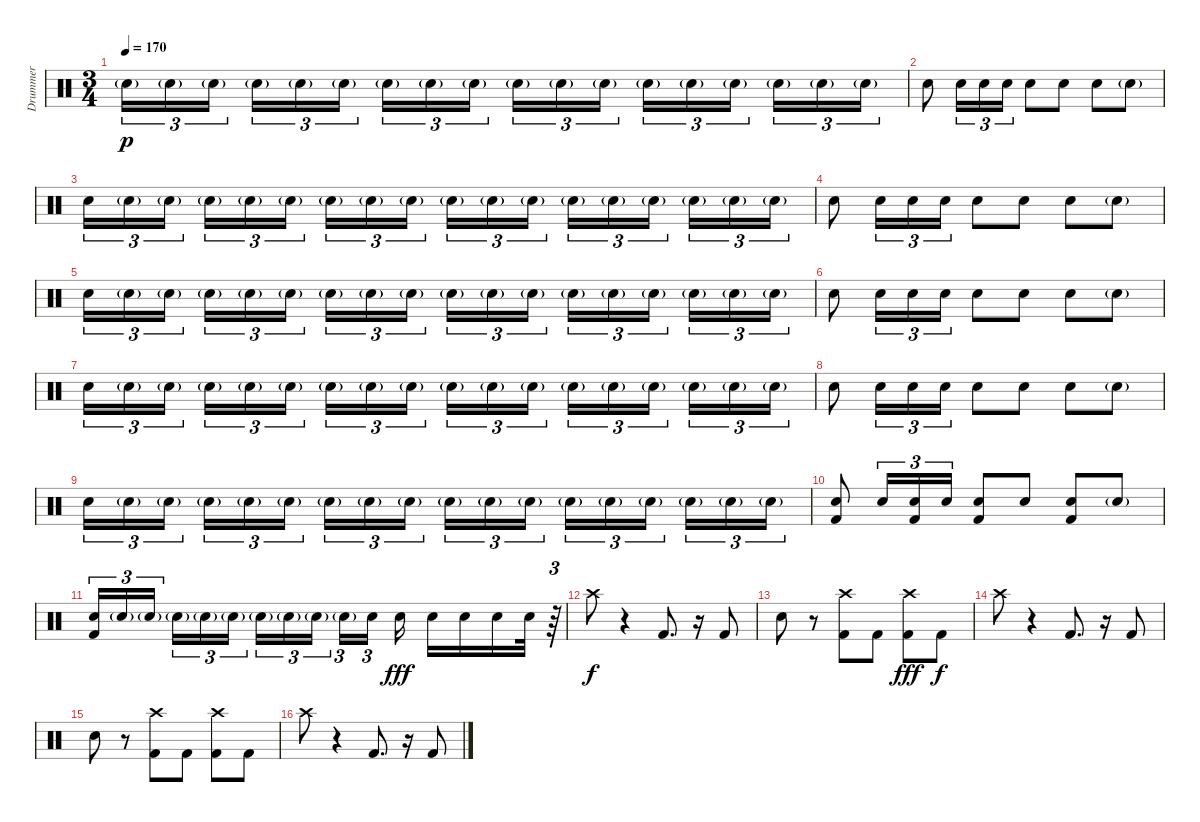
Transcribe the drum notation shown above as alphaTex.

\track ("Drummer" "Drummer") {instrument percussion}
\staff {score}
\articulation defaults
\ts (3 4)
\tempo 170
\clef neutral
\ks c "Electric Snare (hit)"{g}.16{tu (3 2) dy p} "Electric Snare (hit)"{g}.16{tu (3 2)} "Electric Snare (hit)"{g}.16{tu (3 2) beam splitsecondary} "Electric Snare (hit)"{g}.16{tu (3 2)} "Electric Snare (hit)"{g}.16{tu (3 2)} "Electric Snare (hit)"{g}.16{tu (3 2)} "Electric Snare (hit)"{g}.16{tu (3 2)} "Electric Snare (hit)"{g}.16{tu (3 2)} "Electric Snare (hit)"{g}.16{tu (3 2) beam splitsecondary} "Electric Snare (hit)"{g}.16{tu (3 2)} "Electric Snare (hit)"{g}.16{tu (3 2)} "Electric Snare (hit)"{g}.16{tu (3 2)} "Electric Snare (hit)"{g}.16{tu (3 2)} "Electric Snare (hit)"{g}.16{tu (3 2)} "Electric Snare (hit)"{g}.16{tu (3 2) beam splitsecondary} "Electric Snare (hit)"{g}.16{tu (3 2)} "Electric Snare (hit)"{g}.16{tu (3 2)} "Electric Snare (hit)"{g}.16{tu (3 2)}
|
"Electric Snare (hit)".8 "Electric Snare (hit)".16{tu (3 2)} "Electric Snare (hit)".16{tu (3 2)} "Electric Snare (hit)".16{tu (3 2)} "Electric Snare (hit)".8 "Electric Snare (hit)".8 "Electric Snare (hit)".8 "Electric Snare (hit)"{g}.8 |
"Electric Snare (hit)".16{tu (3 2)} "Electric Snare (hit)"{g}.16{tu (3 2)} "Electric Snare (hit)"{g}.16{tu (3 2) beam splitsecondary} "Electric Snare (hit)"{g}.16{tu (3 2)} "Electric Snare (hit)"{g}.16{tu (3 2)} "Electric Snare (hit)"{g}.16{tu (3 2)} "Electric Snare (hit)"{g}.16{tu (3 2)} "Electric Snare (hit)"{g}.16{tu (3 2)} "Electric Snare (hit)"{g}.16{tu (3 2) beam splitsecondary} "Electric Snare (hit)"{g}.16{tu (3 2)} "Electric Snare (hit)"{g}.16{tu (3 2)} "Electric Snare (hit)"{g}.16{tu (3 2)} "Electric Snare (hit)"{g}.16{tu (3 2)} "Electric Snare (hit)"{g}.16{tu (3 2)} "Electric Snare (hit)"{g}.16{tu (3 2) beam splitsecondary} "Electric Snare (hit)"{g}.16{tu (3 2)} "Electric Snare (hit)"{g}.16{tu (3 2)} "Electric Snare (hit)"{g}.16{tu (3 2)} |
"Electric Snare (hit)".8 "Electric Snare (hit)".16{tu (3 2)} "Electric Snare (hit)".16{tu (3 2)} "Electric Snare (hit)".16{tu (3 2)} "Electric Snare (hit)".8 "Electric Snare (hit)".8 "Electric Snare (hit)".8 "Electric Snare (hit)"{g}.8 |
"Electric Snare (hit)".16{tu (3 2)} "Electric Snare (hit)"{g}.16{tu (3 2)} "Electric Snare (hit)"{g}.16{tu (3 2) beam splitsecondary} "Electric Snare (hit)"{g}.16{tu (3 2)} "Electric Snare (hit)"{g}.16{tu (3 2)} "Electric Snare (hit)"{g}.16{tu (3 2)} "Electric Snare (hit)"{g}.16{tu (3 2)} "Electric Snare (hit)"{g}.16{tu (3 2)} "Electric Snare (hit)"{g}.16{tu (3 2) beam splitsecondary} "Electric Snare (hit)"{g}.16{tu (3 2)} "Electric Snare (hit)"{g}.16{tu (3 2)} "Electric Snare (hit)"{g}.16{tu (3 2)} "Electric Snare (hit)"{g}.16{tu (3 2)} "Electric Snare (hit)"{g}.16{tu (3 2)} "Electric Snare (hit)"{g}.16{tu (3 2) beam splitsecondary} "Electric Snare (hit)"{g}.16{tu (3 2)} "Electric Snare (hit)"{g}.16{tu (3 2)} "Electric Snare (hit)"{g}.16{tu (3 2)} |
"Electric Snare (hit)".8 "Electric Snare (hit)".16{tu (3 2)} "Electric Snare (hit)".16{tu (3 2)} "Electric Snare (hit)".16{tu (3 2)} "Electric Snare (hit)".8 "Electric Snare (hit)".8 "Electric Snare (hit)".8 "Electric Snare (hit)"{g}.8 |
"Electric Snare (hit)".16{tu (3 2)} "Electric Snare (hit)"{g}.16{tu (3 2)} "Electric Snare (hit)"{g}.16{tu (3 2) beam splitsecondary} "Electric Snare (hit)"{g}.16{tu (3 2)} "Electric Snare (hit)"{g}.16{tu (3 2)} "Electric Snare (hit)"{g}.16{tu (3 2)} "Electric Snare (hit)"{g}.16{tu (3 2)} "Electric Snare (hit)"{g}.16{tu (3 2)} "Electric Snare (hit)"{g}.16{tu (3 2) beam splitsecondary} "Electric Snare (hit)"{g}.16{tu (3 2)} "Electric Snare (hit)"{g}.16{tu (3 2)} "Electric Snare (hit)"{g}.16{tu (3 2)} "Electric Snare (hit)"{g}.16{tu (3 2)} "Electric Snare (hit)"{g}.16{tu (3 2)} "Electric Snare (hit)"{g}.16{tu (3 2) beam splitsecondary} "Electric Snare (hit)"{g}.16{tu (3 2)} "Electric Snare (hit)"{g}.16{tu (3 2)} "Electric Snare (hit)"{g}.16{tu (3 2)} |
"Electric Snare (hit)".8 "Electric Snare (hit)".16{tu (3 2)} "Electric Snare (hit)".16{tu (3 2)} "Electric Snare (hit)".16{tu (3 2)} "Electric Snare (hit)".8 "Electric Snare (hit)".8 "Electric Snare (hit)".8 "Electric Snare (hit)"{g}.8 |
"Electric Snare (hit)".16{tu (3 2)} "Electric Snare (hit)"{g}.16{tu (3 2)} "Electric Snare (hit)"{g}.16{tu (3 2) beam splitsecondary} "Electric Snare (hit)"{g}.16{tu (3 2)} "Electric Snare (hit)"{g}.16{tu (3 2)} "Electric Snare (hit)"{g}.16{tu (3 2)} "Electric Snare (hit)"{g}.16{tu (3 2)} "Electric Snare (hit)"{g}.16{tu (3 2)} "Electric Snare (hit)"{g}.16{tu (3 2) beam splitsecondary} "Electric Snare (hit)"{g}.16{tu (3 2)} "Electric Snare (hit)"{g}.16{tu (3 2)} "Electric Snare (hit)"{g}.16{tu (3 2)} "Electric Snare (hit)"{g}.16{tu (3 2)} "Electric Snare (hit)"{g}.16{tu (3 2)} "Electric Snare (hit)"{g}.16{tu (3 2) beam splitsecondary} "Electric Snare (hit)"{g}.16{tu (3 2)} "Electric Snare (hit)"{g}.16{tu (3 2)} "Electric Snare (hit)"{g}.16{tu (3 2)} |
("Electric Snare (hit)" "Kick (hit) 2").8 "Electric Snare (hit)".16{tu (3 2)} ("Electric Snare (hit)" "Kick (hit) 2").16{tu (3 2)} "Electric Snare (hit)".16{tu (3 2)} ("Electric Snare (hit)" "Kick (hit) 2").8 "Electric Snare (hit)".8 ("Electric Snare (hit)" "Kick (hit) 2").8 "Electric Snare (hit)"{g}.8 |
("Electric Snare (hit)" "Kick (hit) 2").16{tu (3 2)} "Electric Snare (hit)"{g}.16{tu (3 2)} "Electric Snare (hit)"{g}.16{tu (3 2) beam splitsecondary} "Electric Snare (hit)"{g}.16{tu (3 2)} "Electric Snare (hit)"{g}.16{tu (3 2)} "Electric Snare (hit)"{g}.16{tu (3 2)} "Electric Snare (hit)"{g}.16{tu (3 2)} "Electric Snare (hit)"{g}.16{tu (3 2)} "Electric Snare (hit)"{g}.16{tu (3 2) beam splitsecondary} "Electric Snare (hit)"{g}.16{tu (3 2)} "Electric Snare (hit)".16{tu (3 2) beam splitsecondary} "Electric Snare (hit)".16{dy fff} "Electric Snare (hit)".16 "Electric Snare (hit)".16 "Electric Snare (hit)".16 "Electric Snare (hit)".32 r.64{tu (3 2)} |
"Crash high (hit)".8{dy f} r.4 "Kick (hit) 2".8{d} r.16 "Kick (hit) 2".8 |
"Electric Snare (hit)".8 r.8 ("Crash high (hit)" "Kick (hit) 2").8 "Kick (hit) 2".8 ("Crash high (hit)" "Kick (hit) 2").8{dy fff} "Kick (hit) 2".8{dy f} |
"Crash high (hit)".8 r.4 "Kick (hit) 2".8{d} r.16 "Kick (hit) 2".8 |
"Electric Snare (hit)".8 r.8 ("Crash high (hit)" "Kick (hit) 2").8 "Kick (hit) 2".8 ("Crash high (hit)" "Kick (hit) 2").8 "Kick (hit) 2".8 |
"Crash high (hit)".8 r.4 "Kick (hit) 2".8{d} r.16 "Kick (hit) 2".8
